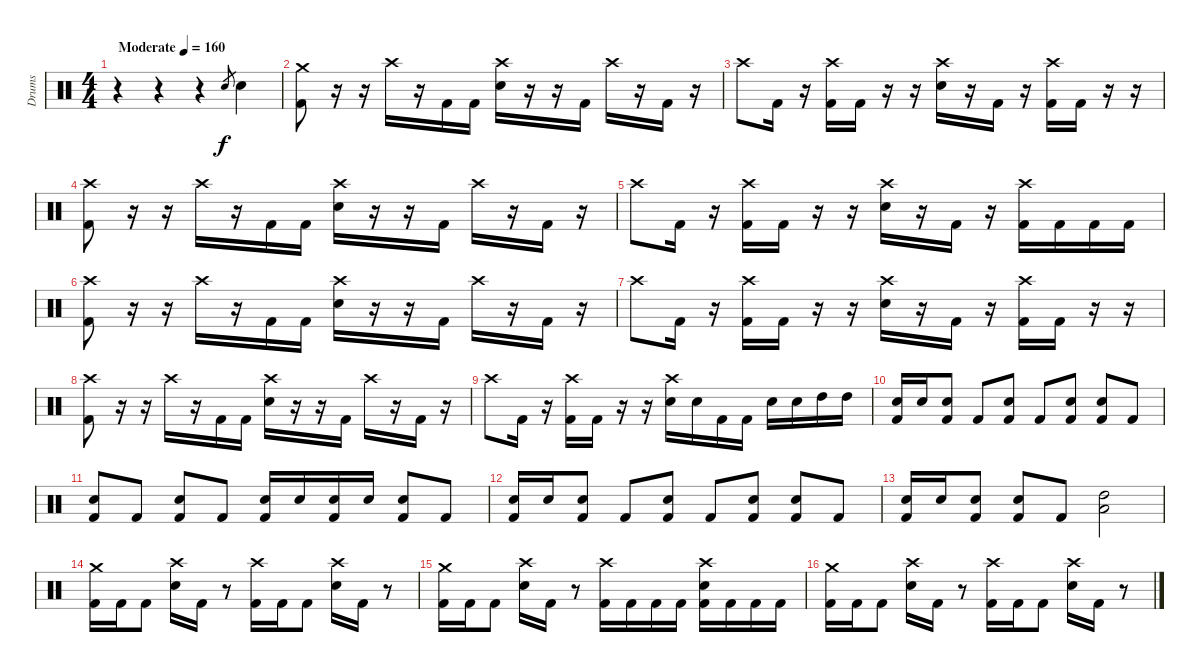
\track ("Drums" "Drums") {instrument percussion}
\staff {score}
\articulation defaults
\ts (4 4)
\tempo (160 "Moderate")
\clef neutral
\ks c
r.4{dy f} r.4 r.4 "Electric Snare (hit)".8{gr} "Electric Snare (hit)".4 |
("Crash medium (hit)" "Kick (hit) 2").8 r.16 r.16 "Crash high (hit)".16 r.16 "Kick (hit) 2".16 "Kick (hit) 2".16 ("Crash high (hit)" "Electric Snare (hit)").16 r.16 r.16 "Kick (hit) 2".16 "Crash high (hit)".16 r.16 "Kick (hit) 2".16 r.16 |
"Crash high (hit)".8 "Kick (hit) 2".16 r.16 ("Crash high (hit)" "Kick (hit) 2").16 "Kick (hit) 2".16 r.16 r.16 ("Crash high (hit)" "Electric Snare (hit)").16 r.16 "Kick (hit) 2".16 r.16 ("Crash high (hit)" "Kick (hit) 2").16 "Kick (hit) 2".16 r.16 r.16 |
("Crash high (hit)" "Kick (hit) 2").8 r.16 r.16 "Crash high (hit)".16 r.16 "Kick (hit) 2".16 "Kick (hit) 2".16 ("Crash high (hit)" "Electric Snare (hit)").16 r.16 r.16 "Kick (hit) 2".16 "Crash high (hit)".16 r.16 "Kick (hit) 2".16 r.16 |
"Crash high (hit)".8 "Kick (hit) 2".16 r.16 ("Crash high (hit)" "Kick (hit) 2").16 "Kick (hit) 2".16 r.16 r.16 ("Crash high (hit)" "Electric Snare (hit)").16 r.16 "Kick (hit) 2".16 r.16 ("Crash high (hit)" "Kick (hit) 2").16 "Kick (hit) 2".16 "Kick (hit) 2".16 "Kick (hit) 2".16 |
("Crash high (hit)" "Kick (hit) 2").8 r.16 r.16 "Crash high (hit)".16 r.16 "Kick (hit) 2".16 "Kick (hit) 2".16 ("Crash high (hit)" "Electric Snare (hit)").16 r.16 r.16 "Kick (hit) 2".16 "Crash high (hit)".16 r.16 "Kick (hit) 2".16 r.16 |
"Crash high (hit)".8 "Kick (hit) 2".16 r.16 ("Crash high (hit)" "Kick (hit) 2").16 "Kick (hit) 2".16 r.16 r.16 ("Crash high (hit)" "Electric Snare (hit)").16 r.16 "Kick (hit) 2".16 r.16 ("Crash high (hit)" "Kick (hit) 2").16 "Kick (hit) 2".16 r.16 r.16 |
("Crash high (hit)" "Kick (hit) 2").8 r.16 r.16 "Crash high (hit)".16 r.16 "Kick (hit) 2".16 "Kick (hit) 2".16 ("Crash high (hit)" "Electric Snare (hit)").16 r.16 r.16 "Kick (hit) 2".16 "Crash high (hit)".16 r.16 "Kick (hit) 2".16 r.16 |
"Crash high (hit)".8 "Kick (hit) 2".16 r.16 ("Crash high (hit)" "Kick (hit) 2").16 "Kick (hit) 2".16 r.16 r.16 ("Crash high (hit)" "Electric Snare (hit)").16 "Electric Snare (hit)".16 "Kick (hit) 2".16 "Kick (hit) 2".16 "Electric Snare (hit)".16 "Electric Snare (hit)".16 "High Tom (hit)".16 "High Tom (hit)".16 |
("Electric Snare (hit)" "Kick (hit) 2").16 "Electric Snare (hit)".16 ("Electric Snare (hit)" "Kick (hit) 2").8 "Kick (hit) 2".8 ("Electric Snare (hit)" "Kick (hit) 2").8 "Kick (hit) 2".8 ("Electric Snare (hit)" "Kick (hit) 2").8 ("Electric Snare (hit)" "Kick (hit) 2").8 "Kick (hit) 2".8 |
("Electric Snare (hit)" "Kick (hit) 2").8 "Kick (hit) 2".8 ("Electric Snare (hit)" "Kick (hit) 2").8 "Kick (hit) 2".8 ("Electric Snare (hit)" "Kick (hit) 2").16 "Electric Snare (hit)".16 ("Electric Snare (hit)" "Kick (hit) 2").16 "Electric Snare (hit)".16 ("Electric Snare (hit)" "Kick (hit) 2").8 "Kick (hit) 2".8 |
("Electric Snare (hit)" "Kick (hit) 2").16 "Electric Snare (hit)".16 ("Electric Snare (hit)" "Kick (hit) 2").8 "Kick (hit) 2".8 ("Electric Snare (hit)" "Kick (hit) 2").8 "Kick (hit) 2".8 ("Electric Snare (hit)" "Kick (hit) 2").8 ("Electric Snare (hit)" "Kick (hit) 2").8 "Kick (hit) 2".8 |
("Electric Snare (hit)" "Kick (hit) 2").16 "Electric Snare (hit)".16 ("Electric Snare (hit)" "Kick (hit) 2").8 ("Electric Snare (hit)" "Kick (hit) 2").8 "Kick (hit) 2".8 ("High Tom (hit)" "Low Floor Tom (hit)").2 |
("Crash medium (hit)" "Kick (hit) 2").16 "Kick (hit) 2".16 "Kick (hit) 2".8 ("Crash high (hit)" "Electric Snare (hit)").16 "Kick (hit) 2".16 r.8 ("Crash high (hit)" "Kick (hit) 2").16 "Kick (hit) 2".16 "Kick (hit) 2".8 ("Crash high (hit)" "Electric Snare (hit)").16 "Kick (hit) 2".16 r.8 |
("Crash medium (hit)" "Kick (hit) 2").16 "Kick (hit) 2".16 "Kick (hit) 2".8 ("Crash high (hit)" "Electric Snare (hit)").16 "Kick (hit) 2".16 r.8 ("Crash high (hit)" "Kick (hit) 2").16 "Kick (hit) 2".16 "Kick (hit) 2".16 "Kick (hit) 2".16 ("Crash high (hit)" "Electric Snare (hit)" "Kick (hit) 2").16 "Kick (hit) 2".16 "Kick (hit) 2".16 "Kick (hit) 2".16 |
("Crash medium (hit)" "Kick (hit) 2").16 "Kick (hit) 2".16 "Kick (hit) 2".8 ("Crash high (hit)" "Electric Snare (hit)").16 "Kick (hit) 2".16 r.8 ("Crash high (hit)" "Kick (hit) 2").16 "Kick (hit) 2".16 "Kick (hit) 2".8 ("Crash high (hit)" "Electric Snare (hit)").16 "Kick (hit) 2".16 r.8
